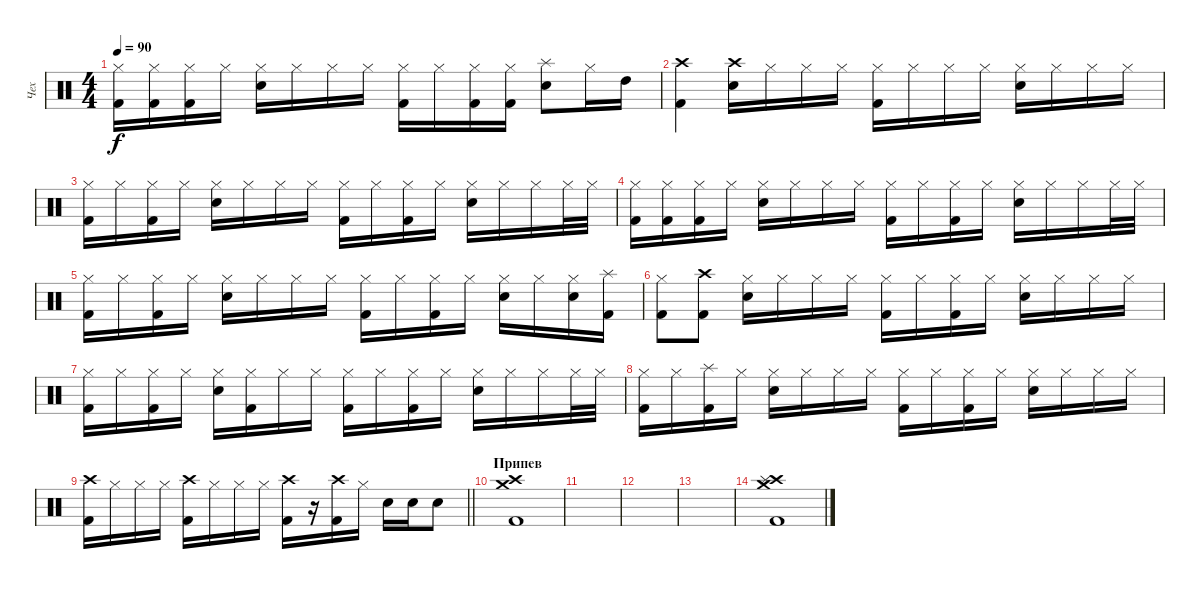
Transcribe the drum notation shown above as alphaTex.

\track ("Чех" "Чех") {instrument percussion}
\staff {score}
\articulation defaults
\ts (4 4)
\tempo 90
\clef neutral
\ks c
("Hi-Hat (closed)" "Kick (hit) 2").16{dy f} ("Hi-Hat (closed)" "Kick (hit) 2").16 ("Hi-Hat (closed)" "Kick (hit) 2").16 "Hi-Hat (closed)".16 ("Hi-Hat (closed)" "Electric Snare (hit)").16 "Hi-Hat (closed)".16 "Hi-Hat (closed)".16 "Hi-Hat (closed)".16 ("Hi-Hat (closed)" "Kick (hit) 2").16 "Hi-Hat (closed)".16 ("Hi-Hat (closed)" "Kick (hit) 2").16 ("Hi-Hat (closed)" "Kick (hit) 2").16 ("Splash (hit)" "Electric Snare (hit)").8 "Hi-Hat (closed)".16 "High Tom (hit)".16 |
("Crash high (hit)" "Kick (hit) 2").4 ("Crash high (hit)" "Electric Snare (hit)").16 "Hi-Hat (closed)".16 "Hi-Hat (closed)".16 "Hi-Hat (closed)".16 ("Hi-Hat (closed)" "Kick (hit) 2").16 "Hi-Hat (closed)".16 "Hi-Hat (closed)".16 "Hi-Hat (closed)".16 ("Hi-Hat (closed)" "Electric Snare (hit)").16 "Hi-Hat (closed)".16 "Hi-Hat (closed)".16 "Hi-Hat (closed)".16 |
("Hi-Hat (closed)" "Kick (hit) 2").16 "Hi-Hat (closed)".16 ("Hi-Hat (closed)" "Kick (hit) 2").16 "Hi-Hat (closed)".16 ("Hi-Hat (closed)" "Electric Snare (hit)").16 "Hi-Hat (closed)".16 "Hi-Hat (closed)".16 "Hi-Hat (closed)".16 ("Hi-Hat (closed)" "Kick (hit) 2").16 "Hi-Hat (closed)".16 ("Hi-Hat (closed)" "Kick (hit) 2").16 "Hi-Hat (closed)".16 ("Hi-Hat (closed)" "Electric Snare (hit)").16 "Hi-Hat (closed)".16 "Hi-Hat (closed)".16 "Hi-Hat (closed)".32 "Hi-Hat (closed)".32 |
("Hi-Hat (closed)" "Kick (hit) 2").16 ("Hi-Hat (closed)" "Kick (hit) 2").16 ("Hi-Hat (closed)" "Kick (hit) 2").16 "Hi-Hat (closed)".16 ("Hi-Hat (closed)" "Electric Snare (hit)").16 "Hi-Hat (closed)".16 "Hi-Hat (closed)".16 "Hi-Hat (closed)".16 ("Hi-Hat (closed)" "Kick (hit) 2").16 "Hi-Hat (closed)".16 ("Hi-Hat (closed)" "Kick (hit) 2").16 "Hi-Hat (closed)".16 ("Hi-Hat (closed)" "Electric Snare (hit)").16 "Hi-Hat (closed)".16 "Hi-Hat (closed)".16 "Hi-Hat (closed)".32 "Hi-Hat (closed)".32 |
("Hi-Hat (closed)" "Kick (hit) 2").16 "Hi-Hat (closed)".16 ("Hi-Hat (closed)" "Kick (hit) 2").16 "Hi-Hat (closed)".16 ("Hi-Hat (closed)" "Electric Snare (hit)").16 "Hi-Hat (closed)".16 "Hi-Hat (closed)".16 "Hi-Hat (closed)".16 ("Hi-Hat (closed)" "Kick (hit) 2").16 "Hi-Hat (closed)".16 ("Hi-Hat (closed)" "Kick (hit) 2").16 "Hi-Hat (closed)".16 ("Hi-Hat (closed)" "Electric Snare (hit)").16 "Hi-Hat (closed)".16 ("Hi-Hat (closed)" "Electric Snare (hit)").16 ("Splash (hit)" "Kick (hit) 2").16 |
("Hi-Hat (closed)" "Kick (hit) 2").8 ("Crash high (hit)" "Kick (hit) 2").8 ("Hi-Hat (closed)" "Electric Snare (hit)").16 "Hi-Hat (closed)".16 "Hi-Hat (closed)".16 "Hi-Hat (closed)".16 ("Hi-Hat (closed)" "Kick (hit) 2").16 "Hi-Hat (closed)".16 ("Hi-Hat (closed)" "Kick (hit) 2").16 "Hi-Hat (closed)".16 ("Hi-Hat (closed)" "Electric Snare (hit)").16 "Hi-Hat (closed)".16 "Hi-Hat (closed)".16 "Hi-Hat (closed)".16 |
("Hi-Hat (closed)" "Kick (hit) 2").16 "Hi-Hat (closed)".16 ("Hi-Hat (closed)" "Kick (hit) 2").16 "Hi-Hat (closed)".16 ("Hi-Hat (closed)" "Electric Snare (hit)").16 ("Hi-Hat (closed)" "Kick (hit) 2").16 "Hi-Hat (closed)".16 "Hi-Hat (closed)".16 ("Hi-Hat (closed)" "Kick (hit) 2").16 "Hi-Hat (closed)".16 ("Hi-Hat (closed)" "Kick (hit) 2").16 "Hi-Hat (closed)".16 ("Hi-Hat (closed)" "Electric Snare (hit)").16 "Hi-Hat (closed)".16 "Hi-Hat (closed)".16 "Hi-Hat (closed)".32 "Hi-Hat (closed)".32 |
("Hi-Hat (closed)" "Kick (hit) 2").16 "Hi-Hat (closed)".16 ("Splash (hit)" "Kick (hit) 2").16 "Hi-Hat (closed)".16 ("Hi-Hat (closed)" "Electric Snare (hit)").16 "Hi-Hat (closed)".16 "Hi-Hat (closed)".16 "Hi-Hat (closed)".16 ("Hi-Hat (closed)" "Kick (hit) 2").16 "Hi-Hat (closed)".16 ("Hi-Hat (closed)" "Kick (hit) 2").16 "Hi-Hat (closed)".16 ("Hi-Hat (closed)" "Electric Snare (hit)").16 "Hi-Hat (closed)".16 "Hi-Hat (closed)".16 "Hi-Hat (closed)".16 |
\barLineRight lightlight
("Crash high (hit)" "Kick (hit) 2").16 "Hi-Hat (closed)".16 "Hi-Hat (closed)".16 "Hi-Hat (closed)".16 ("Crash high (hit)" "Kick (hit) 2").16 "Hi-Hat (closed)".16 "Hi-Hat (closed)".16 "Hi-Hat (closed)".16 ("Crash high (hit)" "Kick (hit) 2").16 r.16 ("Crash high (hit)" "Kick (hit) 2").16 "Hi-Hat (closed)".16 "Electric Snare (hit)".16 "Electric Snare (hit)".16 "Electric Snare (hit)".8 |
\section ("" "Припев")
("Crash high (hit)" "Crash medium (hit)" "Kick (hit) 2").1 |
|
|
|
("Crash high (hit)" "Splash (hit)" "Crash medium (hit)" "Kick (hit) 2").1
